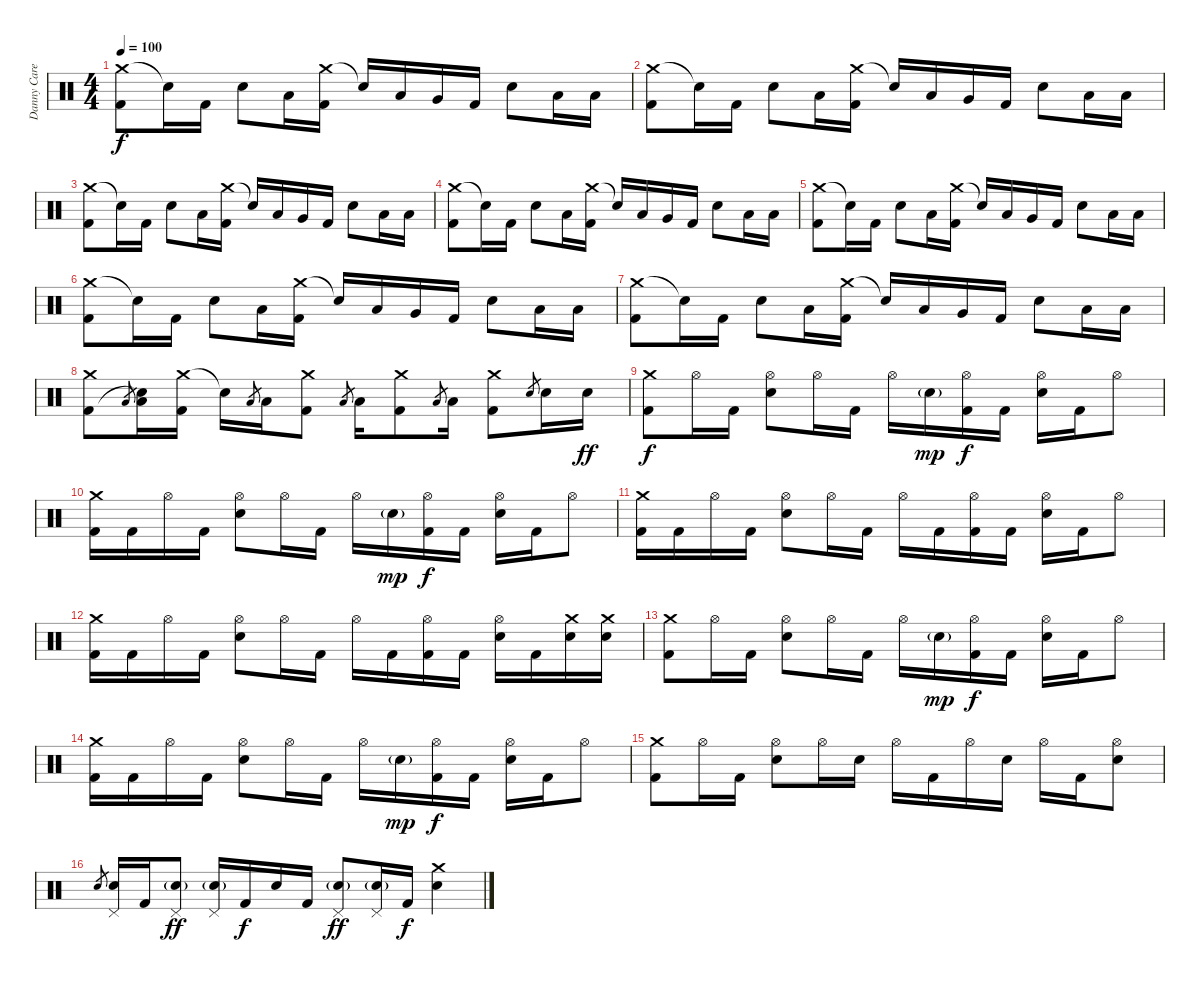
\track ("Danny Carey" "Danny Care") {instrument percussion}
\staff {score}
\articulation defaults
\ts (4 4)
\tempo 100
\clef neutral
\ks c
("Crash medium (hit)" "Kick (hit) 2").8{dy f} "Snare (hit)"{t}.16 "Kick (hit) 2".16 "Snare (hit) 2".8 "Low Tom (hit)".16 ("Crash medium (hit)" "Kick (hit) 2").16 "Snare (hit)"{t}.16 "Low Tom (hit)".16 "Very Low Tom (hit)".16 "Kick (hit) 2".16 "Snare (hit) 2".8 "Low Tom (hit)".16 "Low Tom (hit)".16 |
("Crash medium (hit)" "Kick (hit) 2").8 "Snare (hit)"{t}.16 "Kick (hit) 2".16 "Snare (hit) 2".8 "Low Tom (hit)".16 ("Crash medium (hit)" "Kick (hit) 2").16 "Snare (hit)"{t}.16 "Low Tom (hit)".16 "Very Low Tom (hit)".16 "Kick (hit) 2".16 "Snare (hit) 2".8 "Low Tom (hit)".16 "Low Tom (hit)".16 |
("Crash medium (hit)" "Kick (hit) 2").8 "Snare (hit)"{t}.16 "Kick (hit) 2".16 "Snare (hit) 2".8 "Low Tom (hit)".16 ("Crash medium (hit)" "Kick (hit) 2").16 "Snare (hit)"{t}.16 "Low Tom (hit)".16 "Very Low Tom (hit)".16 "Kick (hit) 2".16 "Snare (hit) 2".8 "Low Tom (hit)".16 "Low Tom (hit)".16 |
("Crash medium (hit)" "Kick (hit) 2").8 "Snare (hit)"{t}.16 "Kick (hit) 2".16 "Snare (hit) 2".8 "Low Tom (hit)".16 ("Crash medium (hit)" "Kick (hit) 2").16 "Snare (hit)"{t}.16 "Low Tom (hit)".16 "Very Low Tom (hit)".16 "Kick (hit) 2".16 "Snare (hit) 2".8 "Low Tom (hit)".16 "Low Tom (hit)".16 |
("Crash medium (hit)" "Kick (hit) 2").8 "Snare (hit)"{t}.16 "Kick (hit) 2".16 "Snare (hit) 2".8 "Low Tom (hit)".16 ("Crash medium (hit)" "Kick (hit) 2").16 "Snare (hit)"{t}.16 "Low Tom (hit)".16 "Very Low Tom (hit)".16 "Kick (hit) 2".16 "Snare (hit) 2".8 "Low Tom (hit)".16 "Low Tom (hit)".16 |
("Crash medium (hit)" "Kick (hit) 2").8 "Snare (hit)"{t}.16 "Kick (hit) 2".16 "Snare (hit) 2".8 "Low Tom (hit)".16 ("Crash medium (hit)" "Kick (hit) 2").16 "Snare (hit)"{t}.16 "Low Tom (hit)".16 "Very Low Tom (hit)".16 "Kick (hit) 2".16 "Snare (hit) 2".8 "Low Tom (hit)".16 "Low Tom (hit)".16 |
("Crash medium (hit)" "Kick (hit) 2").8 "Snare (hit)"{t}.16 "Kick (hit) 2".16 "Snare (hit) 2".8 "Low Tom (hit)".16 ("Crash medium (hit)" "Kick (hit) 2").16 "Snare (hit)"{t}.16 "Low Tom (hit)".16 "Very Low Tom (hit)".16 "Kick (hit) 2".16 "Snare (hit) 2".8 "Low Tom (hit)".16 "Low Tom (hit)".16 |
("Crash medium (hit)" "Kick (hit) 2").8 "Low Tom (hit)".8{gr} ("Low Tom (hit)" "Snare (hit)"{t}).16 ("Crash medium (hit)" "Kick (hit) 2").16 "Snare (hit)"{t}.16 "Low Tom (hit)".8{gr} "Low Tom (hit)".16 ("Crash medium (hit)" "Kick (hit) 2").8 "Low Tom (hit)".8{gr} "Low Tom (hit)".16 ("Crash medium (hit)" "Kick (hit) 2").8 "Low Tom (hit)".8{gr} "Low Tom (hit)".16 ("Crash medium (hit)" "Kick (hit) 2").8 "Snare (hit) 2".8{gr} "Snare (hit) 2".16 "Snare (hit) 2".16{dy ff} |
("Crash medium (hit)" "Kick (hit) 2").8{dy f} "Hi-Hat (open)".16 "Kick (hit) 2".16 ("Hi-Hat (open)" "Snare (hit) 2").8 "Hi-Hat (open)".16 "Kick (hit) 2".16 "Hi-Hat (open)".16 "Snare (hit) 2"{g}.16{dy mp} ("Hi-Hat (open)" "Kick (hit) 2").16{dy f} "Kick (hit) 2".16 ("Hi-Hat (open)" "Snare (hit) 2").16 "Kick (hit) 2".16 "Hi-Hat (open)".8 |
("Crash medium (hit)" "Kick (hit) 2").16 "Kick (hit) 2".16 "Hi-Hat (open)".16 "Kick (hit) 2".16 ("Hi-Hat (open)" "Snare (hit) 2").8 "Hi-Hat (open)".16 "Kick (hit) 2".16 "Hi-Hat (open)".16 "Snare (hit) 2"{g}.16{dy mp} ("Hi-Hat (open)" "Kick (hit) 2").16{dy f} "Kick (hit) 2".16 ("Hi-Hat (open)" "Snare (hit) 2").16 "Kick (hit) 2".16 "Hi-Hat (open)".8 |
("Crash medium (hit)" "Kick (hit) 2").16 "Kick (hit) 2".16 "Hi-Hat (open)".16 "Kick (hit) 2".16 ("Hi-Hat (open)" "Snare (hit) 2").8 "Hi-Hat (open)".16 "Kick (hit) 2".16 "Hi-Hat (open)".16 "Kick (hit) 2".16 ("Hi-Hat (open)" "Kick (hit) 2").16 "Kick (hit) 2".16 ("Hi-Hat (open)" "Snare (hit) 2").16 "Kick (hit) 2".16 "Hi-Hat (open)".8 |
("Crash medium (hit)" "Kick (hit) 2").16 "Kick (hit) 2".16 "Hi-Hat (open)".16 "Kick (hit) 2".16 ("Hi-Hat (open)" "Snare (hit) 2").8 "Hi-Hat (open)".16 "Kick (hit) 2".16 "Hi-Hat (open)".16 "Kick (hit) 2".16 ("Hi-Hat (open)" "Kick (hit) 2").16 "Kick (hit) 2".16 ("Hi-Hat (open)" "Snare (hit) 2").16 "Kick (hit) 2".16 ("Crash medium (hit)" "Snare (hit) 2").16 ("Crash medium (hit)" "Snare (hit) 2").16 |
("Crash medium (hit)" "Kick (hit) 2").8 "Hi-Hat (open)".16 "Kick (hit) 2".16 ("Hi-Hat (open)" "Snare (hit) 2").8 "Hi-Hat (open)".16 "Kick (hit) 2".16 "Hi-Hat (open)".16 "Snare (hit) 2"{g}.16{dy mp} ("Hi-Hat (open)" "Kick (hit) 2").16{dy f} "Kick (hit) 2".16 ("Hi-Hat (open)" "Snare (hit) 2").16 "Kick (hit) 2".16 "Hi-Hat (open)".8 |
("Crash medium (hit)" "Kick (hit) 2").16 "Kick (hit) 2".16 "Hi-Hat (open)".16 "Kick (hit) 2".16 ("Hi-Hat (open)" "Snare (hit) 2").8 "Hi-Hat (open)".16 "Kick (hit) 2".16 "Hi-Hat (open)".16 "Snare (hit) 2"{g}.16{dy mp} ("Hi-Hat (open)" "Kick (hit) 2").16{dy f} "Kick (hit) 2".16 ("Hi-Hat (open)" "Snare (hit) 2").16 "Kick (hit) 2".16 "Hi-Hat (open)".8 |
("Crash medium (hit)" "Kick (hit) 2").8 "Hi-Hat (open)".16 "Kick (hit) 2".16 ("Hi-Hat (open)" "Snare (hit) 2").8 "Hi-Hat (open)".16 "Snare (hit) 2".16 "Hi-Hat (open)".16 "Kick (hit) 2".16 "Hi-Hat (open)".16 "Snare (hit) 2".16 "Hi-Hat (open)".16 "Kick (hit) 2".16 ("Hi-Hat (open)" "Snare (hit) 2").8 |
"Snare (hit) 2".8{gr} ("Snare (hit) 2" "Pedal Hi-Hat (hit)").16 "Kick (hit) 2".16 ("Snare (hit) 2"{g} "Pedal Hi-Hat (hit)").8{dy ff} ("Snare (hit) 2"{g} "Pedal Hi-Hat (hit)").16 "Kick (hit) 2".16{dy f} "Snare (hit) 2".16 "Kick (hit) 2".16 ("Snare (hit) 2"{g} "Pedal Hi-Hat (hit)").8{dy ff} ("Snare (hit) 2"{g} "Pedal Hi-Hat (hit)").16 "Kick (hit) 2".16{dy f} ("Crash medium (hit)" "Snare (hit) 2").4
